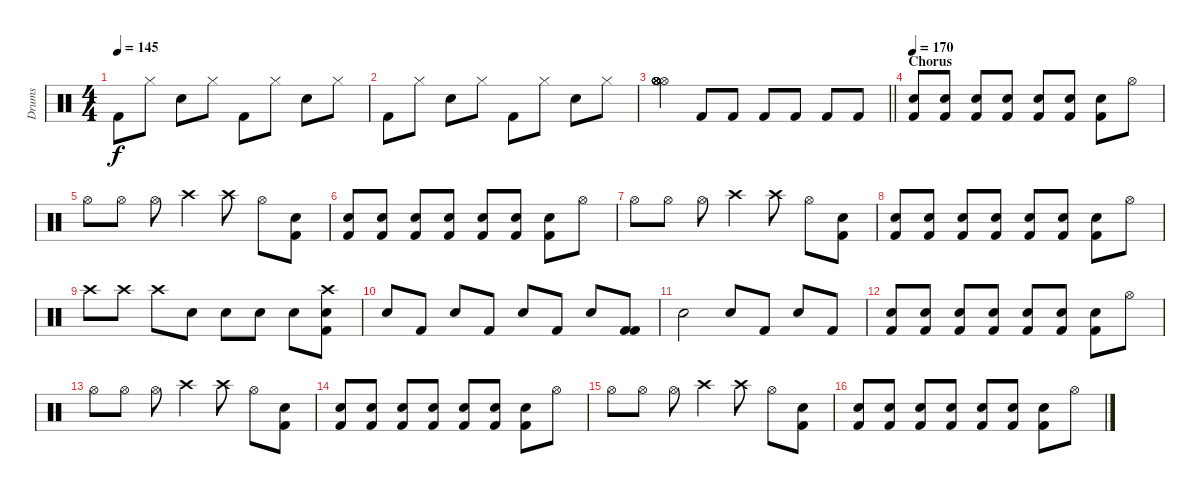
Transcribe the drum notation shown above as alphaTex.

\track ("Drums" "Drums") {instrument percussion}
\staff {score}
\articulation defaults
\ts (4 4)
\tempo 145
\clef neutral
\ks c "Kick (hit) 2".8{dy f} "Hi-Hat (closed)".8 "Electric Snare (hit)".8 "Hi-Hat (closed)".8 "Kick (hit) 2".8 "Hi-Hat (closed)".8 "Electric Snare (hit)".8 "Hi-Hat (closed)".8
|
"Kick (hit) 2".8 "Hi-Hat (closed)".8 "Electric Snare (hit)".8 "Hi-Hat (closed)".8 "Kick (hit) 2".8 "Hi-Hat (closed)".8 "Electric Snare (hit)".8 "Hi-Hat (closed)".8 |
\barLineRight lightlight
("Hi-Hat (open)" "Hi-Hat (open)" "Hi-Hat (open)" "Hi-Hat (open)" "Hi-Hat (open)" "Hi-Hat (open)").4 "Kick (hit) 2".8 "Kick (hit) 2".8 "Kick (hit) 2".8 "Kick (hit) 2".8 "Kick (hit) 2".8 "Kick (hit) 2".8 |
\section ("" "Chorus")
\tempo 170
("Electric Snare (hit)" "Kick (hit) 2").8 ("Electric Snare (hit)" "Kick (hit) 2").8 ("Electric Snare (hit)" "Kick (hit) 2").8 ("Electric Snare (hit)" "Kick (hit) 2").8 ("Electric Snare (hit)" "Kick (hit) 2").8 ("Electric Snare (hit)" "Kick (hit) 2").8 ("Electric Snare (hit)" "Kick (hit) 2").8 "Hi-Hat (open)".8 |
"Hi-Hat (open)".8 "Hi-Hat (open)".8 "Hi-Hat (open)".8 "Crash high (hit)".4 "Crash high (hit)".8 "Hi-Hat (open)".8 ("Electric Snare (hit)" "Kick (hit) 2").8 |
("Electric Snare (hit)" "Kick (hit) 2").8 ("Electric Snare (hit)" "Kick (hit) 2").8 ("Electric Snare (hit)" "Kick (hit) 2").8 ("Electric Snare (hit)" "Kick (hit) 2").8 ("Electric Snare (hit)" "Kick (hit) 2").8 ("Electric Snare (hit)" "Kick (hit) 2").8 ("Electric Snare (hit)" "Kick (hit) 2").8 "Hi-Hat (open)".8 |
"Hi-Hat (open)".8 "Hi-Hat (open)".8 "Hi-Hat (open)".8 "Crash high (hit)".4 "Crash high (hit)".8 "Hi-Hat (open)".8 ("Electric Snare (hit)" "Kick (hit) 2").8 |
("Electric Snare (hit)" "Kick (hit) 2").8 ("Electric Snare (hit)" "Kick (hit) 2").8 ("Electric Snare (hit)" "Kick (hit) 2").8 ("Electric Snare (hit)" "Kick (hit) 2").8 ("Electric Snare (hit)" "Kick (hit) 2").8 ("Electric Snare (hit)" "Kick (hit) 2").8 ("Electric Snare (hit)" "Kick (hit) 2").8 "Hi-Hat (open)".8 |
"Crash high (hit)".8 "Crash high (hit)".8 "Crash high (hit)".8 "Electric Snare (hit)".8 "Electric Snare (hit)".8 "Electric Snare (hit)".8 "Electric Snare (hit)".8 ("Electric Snare (hit)" "Crash high (hit)" "Kick (hit) 2").8 |
"Electric Snare (hit)".8 "Kick (hit) 2".8 "Electric Snare (hit)".8 "Kick (hit) 2".8 "Electric Snare (hit)".8 "Kick (hit) 2".8 "Electric Snare (hit)".8 ("Kick (hit) 2" "Kick (hit) 2").8 |
"Electric Snare (hit)".2 "Electric Snare (hit)".8 "Kick (hit) 2".8 "Electric Snare (hit)".8 "Kick (hit) 2".8 |
("Electric Snare (hit)" "Kick (hit) 2").8 ("Electric Snare (hit)" "Kick (hit) 2").8 ("Electric Snare (hit)" "Kick (hit) 2").8 ("Electric Snare (hit)" "Kick (hit) 2").8 ("Electric Snare (hit)" "Kick (hit) 2").8 ("Electric Snare (hit)" "Kick (hit) 2").8 ("Electric Snare (hit)" "Kick (hit) 2").8 "Hi-Hat (open)".8 |
"Hi-Hat (open)".8 "Hi-Hat (open)".8 "Hi-Hat (open)".8 "Crash high (hit)".4 "Crash high (hit)".8 "Hi-Hat (open)".8 ("Electric Snare (hit)" "Kick (hit) 2").8 |
("Electric Snare (hit)" "Kick (hit) 2").8 ("Electric Snare (hit)" "Kick (hit) 2").8 ("Electric Snare (hit)" "Kick (hit) 2").8 ("Electric Snare (hit)" "Kick (hit) 2").8 ("Electric Snare (hit)" "Kick (hit) 2").8 ("Electric Snare (hit)" "Kick (hit) 2").8 ("Electric Snare (hit)" "Kick (hit) 2").8 "Hi-Hat (open)".8 |
"Hi-Hat (open)".8 "Hi-Hat (open)".8 "Hi-Hat (open)".8 "Crash high (hit)".4 "Crash high (hit)".8 "Hi-Hat (open)".8 ("Electric Snare (hit)" "Kick (hit) 2").8 |
("Electric Snare (hit)" "Kick (hit) 2").8 ("Electric Snare (hit)" "Kick (hit) 2").8 ("Electric Snare (hit)" "Kick (hit) 2").8 ("Electric Snare (hit)" "Kick (hit) 2").8 ("Electric Snare (hit)" "Kick (hit) 2").8 ("Electric Snare (hit)" "Kick (hit) 2").8 ("Electric Snare (hit)" "Kick (hit) 2").8 "Hi-Hat (open)".8
